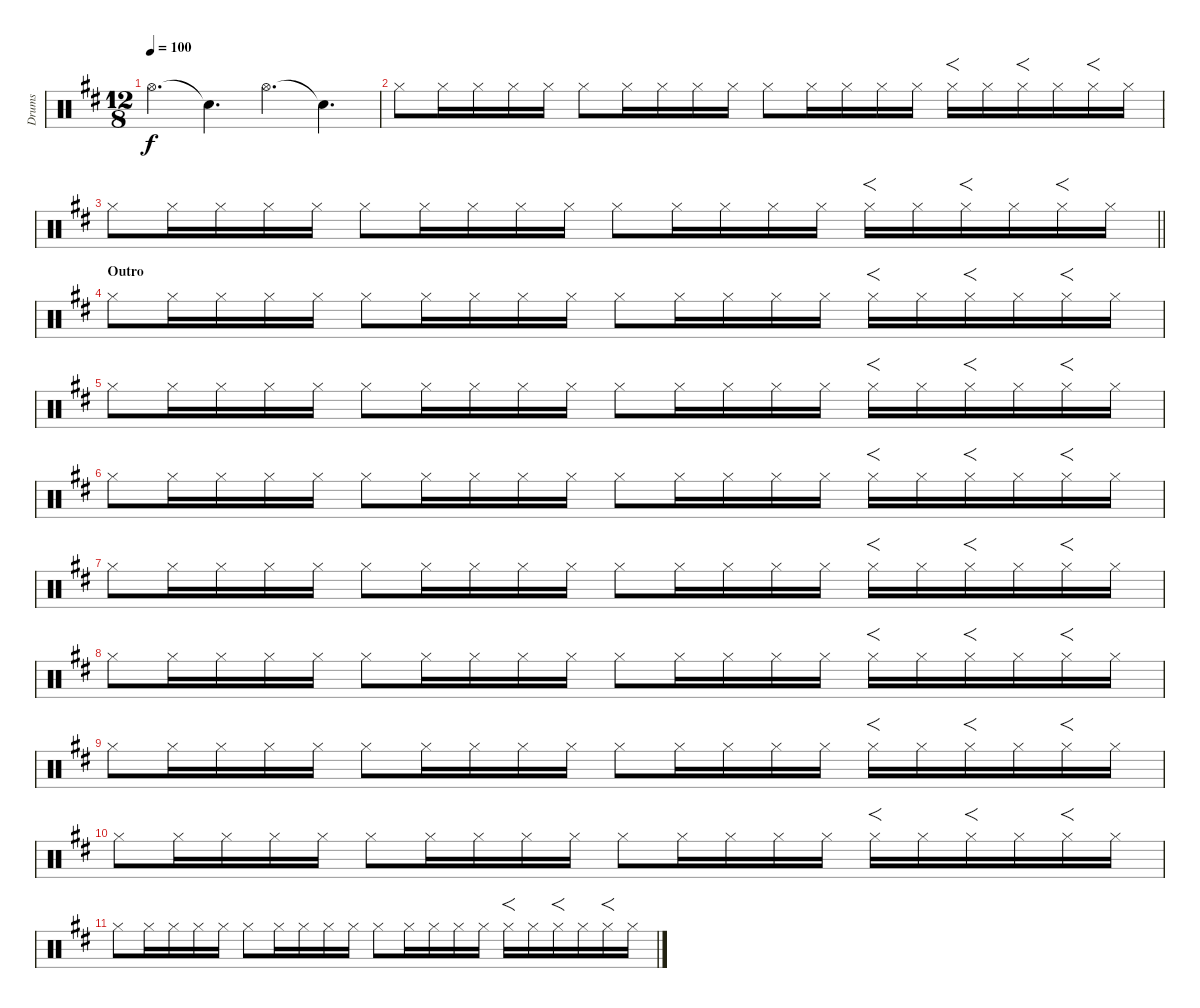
\track ("Drums" "Drums") {instrument percussion}
\staff {score}
\articulation defaults
\ts (12 8)
\tempo 100
\clef neutral
\ks d "Hi-Hat (open)".4{d dy f} "Snare (hit)"{t}.4{d} "Hi-Hat (open)".4{d} "Snare (hit)"{t}.4{d}
|
"Hi-Hat (closed)".8 "Hi-Hat (closed)".16 "Hi-Hat (closed)".16 "Hi-Hat (closed)".16 "Hi-Hat (closed)".16 "Hi-Hat (closed)".8 "Hi-Hat (closed)".16 "Hi-Hat (closed)".16 "Hi-Hat (closed)".16 "Hi-Hat (closed)".16 "Hi-Hat (closed)".8 "Hi-Hat (closed)".16 "Hi-Hat (closed)".16 "Hi-Hat (closed)".16 "Hi-Hat (closed)".16 "Hi-Hat (closed)".16{f} "Hi-Hat (closed)".16 "Hi-Hat (closed)".16{f} "Hi-Hat (closed)".16 "Hi-Hat (closed)".16{f} "Hi-Hat (closed)".16 |
\barLineRight lightlight "Hi-Hat (closed)".8 "Hi-Hat (closed)".16 "Hi-Hat (closed)".16 "Hi-Hat (closed)".16 "Hi-Hat (closed)".16 "Hi-Hat (closed)".8 "Hi-Hat (closed)".16 "Hi-Hat (closed)".16 "Hi-Hat (closed)".16 "Hi-Hat (closed)".16 "Hi-Hat (closed)".8 "Hi-Hat (closed)".16 "Hi-Hat (closed)".16 "Hi-Hat (closed)".16 "Hi-Hat (closed)".16 "Hi-Hat (closed)".16{f} "Hi-Hat (closed)".16 "Hi-Hat (closed)".16{f} "Hi-Hat (closed)".16 "Hi-Hat (closed)".16{f} "Hi-Hat (closed)".16
|
\section ("" "Outro")
"Hi-Hat (closed)".8 "Hi-Hat (closed)".16 "Hi-Hat (closed)".16 "Hi-Hat (closed)".16 "Hi-Hat (closed)".16 "Hi-Hat (closed)".8 "Hi-Hat (closed)".16 "Hi-Hat (closed)".16 "Hi-Hat (closed)".16 "Hi-Hat (closed)".16 "Hi-Hat (closed)".8 "Hi-Hat (closed)".16 "Hi-Hat (closed)".16 "Hi-Hat (closed)".16 "Hi-Hat (closed)".16 "Hi-Hat (closed)".16{f} "Hi-Hat (closed)".16 "Hi-Hat (closed)".16{f} "Hi-Hat (closed)".16 "Hi-Hat (closed)".16{f} "Hi-Hat (closed)".16 |
"Hi-Hat (closed)".8 "Hi-Hat (closed)".16 "Hi-Hat (closed)".16 "Hi-Hat (closed)".16 "Hi-Hat (closed)".16 "Hi-Hat (closed)".8 "Hi-Hat (closed)".16 "Hi-Hat (closed)".16 "Hi-Hat (closed)".16 "Hi-Hat (closed)".16 "Hi-Hat (closed)".8 "Hi-Hat (closed)".16 "Hi-Hat (closed)".16 "Hi-Hat (closed)".16 "Hi-Hat (closed)".16 "Hi-Hat (closed)".16{f} "Hi-Hat (closed)".16 "Hi-Hat (closed)".16{f} "Hi-Hat (closed)".16 "Hi-Hat (closed)".16{f} "Hi-Hat (closed)".16 |
"Hi-Hat (closed)".8 "Hi-Hat (closed)".16 "Hi-Hat (closed)".16 "Hi-Hat (closed)".16 "Hi-Hat (closed)".16 "Hi-Hat (closed)".8 "Hi-Hat (closed)".16 "Hi-Hat (closed)".16 "Hi-Hat (closed)".16 "Hi-Hat (closed)".16 "Hi-Hat (closed)".8 "Hi-Hat (closed)".16 "Hi-Hat (closed)".16 "Hi-Hat (closed)".16 "Hi-Hat (closed)".16 "Hi-Hat (closed)".16{f} "Hi-Hat (closed)".16 "Hi-Hat (closed)".16{f} "Hi-Hat (closed)".16 "Hi-Hat (closed)".16{f} "Hi-Hat (closed)".16 |
"Hi-Hat (closed)".8 "Hi-Hat (closed)".16 "Hi-Hat (closed)".16 "Hi-Hat (closed)".16 "Hi-Hat (closed)".16 "Hi-Hat (closed)".8 "Hi-Hat (closed)".16 "Hi-Hat (closed)".16 "Hi-Hat (closed)".16 "Hi-Hat (closed)".16 "Hi-Hat (closed)".8 "Hi-Hat (closed)".16 "Hi-Hat (closed)".16 "Hi-Hat (closed)".16 "Hi-Hat (closed)".16 "Hi-Hat (closed)".16{f} "Hi-Hat (closed)".16 "Hi-Hat (closed)".16{f} "Hi-Hat (closed)".16 "Hi-Hat (closed)".16{f} "Hi-Hat (closed)".16 |
"Hi-Hat (closed)".8 "Hi-Hat (closed)".16 "Hi-Hat (closed)".16 "Hi-Hat (closed)".16 "Hi-Hat (closed)".16 "Hi-Hat (closed)".8 "Hi-Hat (closed)".16 "Hi-Hat (closed)".16 "Hi-Hat (closed)".16 "Hi-Hat (closed)".16 "Hi-Hat (closed)".8 "Hi-Hat (closed)".16 "Hi-Hat (closed)".16 "Hi-Hat (closed)".16 "Hi-Hat (closed)".16 "Hi-Hat (closed)".16{f} "Hi-Hat (closed)".16 "Hi-Hat (closed)".16{f} "Hi-Hat (closed)".16 "Hi-Hat (closed)".16{f} "Hi-Hat (closed)".16 |
"Hi-Hat (closed)".8 "Hi-Hat (closed)".16 "Hi-Hat (closed)".16 "Hi-Hat (closed)".16 "Hi-Hat (closed)".16 "Hi-Hat (closed)".8 "Hi-Hat (closed)".16 "Hi-Hat (closed)".16 "Hi-Hat (closed)".16 "Hi-Hat (closed)".16 "Hi-Hat (closed)".8 "Hi-Hat (closed)".16 "Hi-Hat (closed)".16 "Hi-Hat (closed)".16 "Hi-Hat (closed)".16 "Hi-Hat (closed)".16{f} "Hi-Hat (closed)".16 "Hi-Hat (closed)".16{f} "Hi-Hat (closed)".16 "Hi-Hat (closed)".16{f} "Hi-Hat (closed)".16 |
"Hi-Hat (closed)".8 "Hi-Hat (closed)".16 "Hi-Hat (closed)".16 "Hi-Hat (closed)".16 "Hi-Hat (closed)".16 "Hi-Hat (closed)".8 "Hi-Hat (closed)".16 "Hi-Hat (closed)".16 "Hi-Hat (closed)".16 "Hi-Hat (closed)".16 "Hi-Hat (closed)".8 "Hi-Hat (closed)".16 "Hi-Hat (closed)".16 "Hi-Hat (closed)".16 "Hi-Hat (closed)".16 "Hi-Hat (closed)".16{f} "Hi-Hat (closed)".16 "Hi-Hat (closed)".16{f} "Hi-Hat (closed)".16 "Hi-Hat (closed)".16{f} "Hi-Hat (closed)".16 |
"Hi-Hat (closed)".8 "Hi-Hat (closed)".16 "Hi-Hat (closed)".16 "Hi-Hat (closed)".16 "Hi-Hat (closed)".16 "Hi-Hat (closed)".8 "Hi-Hat (closed)".16 "Hi-Hat (closed)".16 "Hi-Hat (closed)".16 "Hi-Hat (closed)".16 "Hi-Hat (closed)".8 "Hi-Hat (closed)".16 "Hi-Hat (closed)".16 "Hi-Hat (closed)".16 "Hi-Hat (closed)".16 "Hi-Hat (closed)".16{f} "Hi-Hat (closed)".16 "Hi-Hat (closed)".16{f} "Hi-Hat (closed)".16 "Hi-Hat (closed)".16{f} "Hi-Hat (closed)".16
